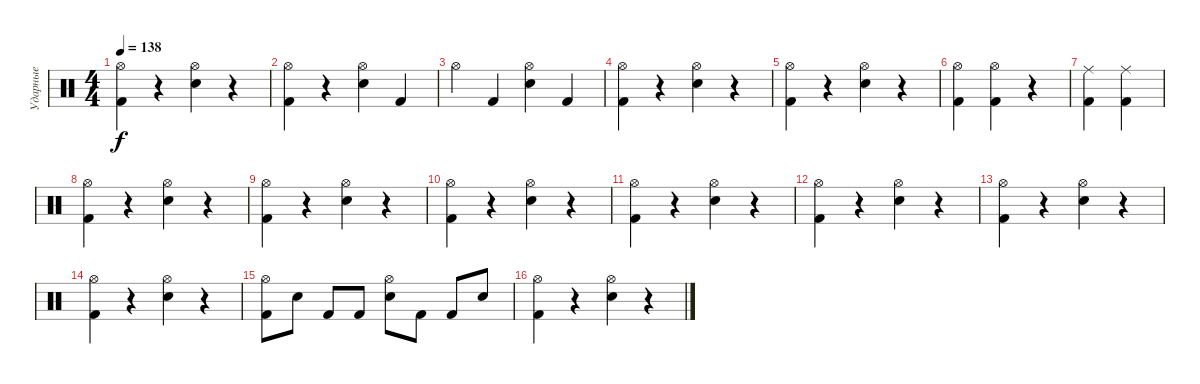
\track ("Ударные" "Ударные") {instrument percussion}
\staff {score}
\articulation defaults
\ts (4 4)
\tempo 138
\clef neutral
\ks c
("Hi-Hat (open)" "Kick (hit) 2").4{dy f} r.4 ("Hi-Hat (open)" "Snare (hit) 2").4 r.4 |
("Hi-Hat (open)" "Kick (hit) 2").4 r.4 ("Hi-Hat (open)" "Snare (hit) 2").4 "Kick (hit) 2".4 |
"Hi-Hat (open)".4 "Kick (hit) 2".4 ("Hi-Hat (open)" "Snare (hit) 2").4 "Kick (hit) 2".4 |
("Hi-Hat (open)" "Kick (hit) 2").4 r.4 ("Hi-Hat (open)" "Snare (hit) 2").4 r.4 |
("Hi-Hat (open)" "Kick (hit) 2").4 r.4 ("Hi-Hat (open)" "Snare (hit) 2").4 r.4 |
("Hi-Hat (open)" "Kick (hit) 2").4 ("Hi-Hat (open)" "Kick (hit) 2").4 r.4 |
("Ride (middle)" "Kick (hit) 2").4 ("Ride (middle)" "Kick (hit) 2").4 |
("Hi-Hat (open)" "Kick (hit) 2").4 r.4 ("Hi-Hat (open)" "Snare (hit) 2").4 r.4 |
("Hi-Hat (open)" "Kick (hit) 2").4 r.4 ("Hi-Hat (open)" "Snare (hit) 2").4 r.4 |
("Hi-Hat (open)" "Kick (hit) 2").4 r.4 ("Hi-Hat (open)" "Snare (hit) 2").4 r.4 |
("Hi-Hat (open)" "Kick (hit) 2").4 r.4 ("Hi-Hat (open)" "Snare (hit) 2").4 r.4 |
("Hi-Hat (open)" "Kick (hit) 2").4 r.4 ("Hi-Hat (open)" "Snare (hit) 2").4 r.4 |
("Hi-Hat (open)" "Kick (hit) 2").4 r.4 ("Hi-Hat (open)" "Snare (hit) 2").4 r.4 |
("Hi-Hat (open)" "Kick (hit) 2").4 r.4 ("Hi-Hat (open)" "Snare (hit) 2").4 r.4 |
("Hi-Hat (open)" "Kick (hit) 2").8 "Snare (hit) 2".8 "Kick (hit) 2".8 "Kick (hit) 2".8 ("Hi-Hat (open)" "Snare (hit) 2").8 "Kick (hit) 2".8 "Kick (hit) 2".8 "Snare (hit) 2".8 |
("Hi-Hat (open)" "Kick (hit) 2").4 r.4 ("Hi-Hat (open)" "Snare (hit) 2").4 r.4
